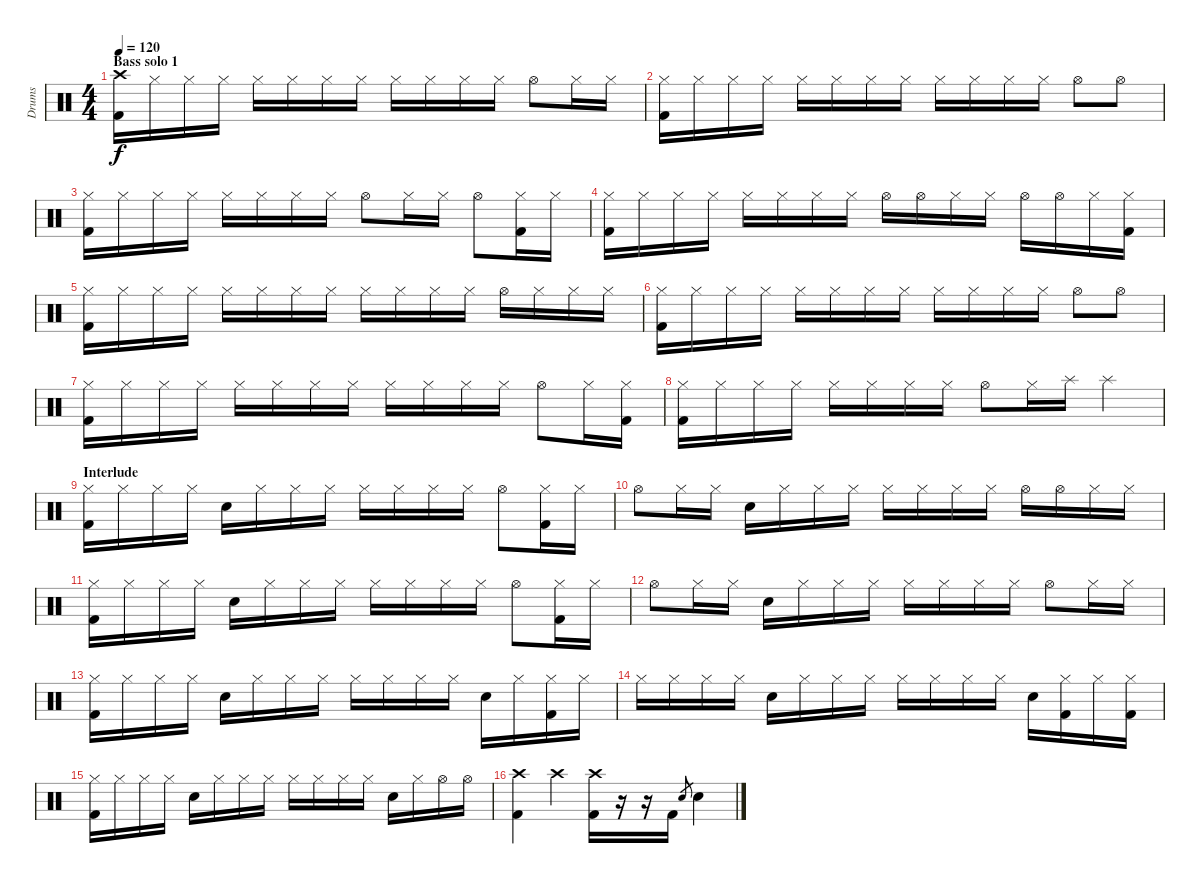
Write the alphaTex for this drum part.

\track ("Drums" "Drums") {instrument percussion}
\staff {score}
\articulation defaults
\ts (4 4)
\section ("" "Bass solo 1")
\tempo 120
\clef neutral
\ks c
("Crash high (hit)" "Kick (hit) 2").16{dy f} "Hi-Hat (closed)".16 "Hi-Hat (closed)".16 "Hi-Hat (closed)".16 "Hi-Hat (closed)".16 "Hi-Hat (closed)".16 "Hi-Hat (closed)".16 "Hi-Hat (closed)".16 "Hi-Hat (closed)".16 "Hi-Hat (closed)".16 "Hi-Hat (closed)".16 "Hi-Hat (closed)".16 "Hi-Hat (open)".8 "Hi-Hat (closed)".16 "Hi-Hat (closed)".16 |
("Hi-Hat (closed)" "Kick (hit) 2").16 "Hi-Hat (closed)".16 "Hi-Hat (closed)".16 "Hi-Hat (closed)".16 "Hi-Hat (closed)".16 "Hi-Hat (closed)".16 "Hi-Hat (closed)".16 "Hi-Hat (closed)".16 "Hi-Hat (closed)".16 "Hi-Hat (closed)".16 "Hi-Hat (closed)".16 "Hi-Hat (closed)".16 "Hi-Hat (open)".8 "Hi-Hat (open)".8 |
("Hi-Hat (closed)" "Kick (hit) 2").16 "Hi-Hat (closed)".16 "Hi-Hat (closed)".16 "Hi-Hat (closed)".16 "Hi-Hat (closed)".16 "Hi-Hat (closed)".16 "Hi-Hat (closed)".16 "Hi-Hat (closed)".16 "Hi-Hat (open)".8 "Hi-Hat (closed)".16 "Hi-Hat (closed)".16 "Hi-Hat (open)".8 ("Hi-Hat (closed)" "Kick (hit) 2").16 "Hi-Hat (closed)".16 |
("Hi-Hat (closed)" "Kick (hit) 2").16 "Hi-Hat (closed)".16 "Hi-Hat (closed)".16 "Hi-Hat (closed)".16 "Hi-Hat (closed)".16 "Hi-Hat (closed)".16 "Hi-Hat (closed)".16 "Hi-Hat (closed)".16 "Hi-Hat (open)".16 "Hi-Hat (open)".16 "Hi-Hat (closed)".16 "Hi-Hat (closed)".16 "Hi-Hat (open)".16 "Hi-Hat (open)".16 "Hi-Hat (closed)".16 ("Hi-Hat (closed)" "Kick (hit) 2").16 |
("Hi-Hat (closed)" "Kick (hit) 2").16 "Hi-Hat (closed)".16 "Hi-Hat (closed)".16 "Hi-Hat (closed)".16 "Hi-Hat (closed)".16 "Hi-Hat (closed)".16 "Hi-Hat (closed)".16 "Hi-Hat (closed)".16 "Hi-Hat (closed)".16 "Hi-Hat (closed)".16 "Hi-Hat (closed)".16 "Hi-Hat (closed)".16 "Hi-Hat (open)".16 "Hi-Hat (closed)".16 "Hi-Hat (closed)".16 "Hi-Hat (closed)".16 |
("Hi-Hat (closed)" "Kick (hit) 2").16 "Hi-Hat (closed)".16 "Hi-Hat (closed)".16 "Hi-Hat (closed)".16 "Hi-Hat (closed)".16 "Hi-Hat (closed)".16 "Hi-Hat (closed)".16 "Hi-Hat (closed)".16 "Hi-Hat (closed)".16 "Hi-Hat (closed)".16 "Hi-Hat (closed)".16 "Hi-Hat (closed)".16 "Hi-Hat (open)".8 "Hi-Hat (open)".8 |
("Hi-Hat (closed)" "Kick (hit) 2").16 "Hi-Hat (closed)".16 "Hi-Hat (closed)".16 "Hi-Hat (closed)".16 "Hi-Hat (closed)".16 "Hi-Hat (closed)".16 "Hi-Hat (closed)".16 "Hi-Hat (closed)".16 "Hi-Hat (closed)".16 "Hi-Hat (closed)".16 "Hi-Hat (closed)".16 "Hi-Hat (closed)".16 "Hi-Hat (open)".8 "Hi-Hat (closed)".16 ("Hi-Hat (closed)" "Kick (hit) 2").16 |
("Hi-Hat (closed)" "Kick (hit) 2").16 "Hi-Hat (closed)".16 "Hi-Hat (closed)".16 "Hi-Hat (closed)".16 "Hi-Hat (closed)".16 "Hi-Hat (closed)".16 "Hi-Hat (closed)".16 "Hi-Hat (closed)".16 "Hi-Hat (open)".8 "Hi-Hat (closed)".16 "Splash (hit)".16 "Splash (hit)".4 |
\section ("" "Interlude")
("Hi-Hat (closed)" "Kick (hit) 2").16 "Hi-Hat (closed)".16 "Hi-Hat (closed)".16 "Hi-Hat (closed)".16 "Electric Snare (hit)".16 "Hi-Hat (closed)".16 "Hi-Hat (closed)".16 "Hi-Hat (closed)".16 "Hi-Hat (closed)".16 "Hi-Hat (closed)".16 "Hi-Hat (closed)".16 "Hi-Hat (closed)".16 "Hi-Hat (open)".8 ("Hi-Hat (closed)" "Kick (hit) 2").16 "Hi-Hat (closed)".16 |
"Hi-Hat (open)".8 "Hi-Hat (closed)".16 "Hi-Hat (closed)".16 "Electric Snare (hit)".16 "Hi-Hat (closed)".16 "Hi-Hat (closed)".16 "Hi-Hat (closed)".16 "Hi-Hat (closed)".16 "Hi-Hat (closed)".16 "Hi-Hat (closed)".16 "Hi-Hat (closed)".16 "Hi-Hat (open)".16 "Hi-Hat (open)".16 "Hi-Hat (closed)".16 "Hi-Hat (closed)".16 |
("Hi-Hat (closed)" "Kick (hit) 2").16 "Hi-Hat (closed)".16 "Hi-Hat (closed)".16 "Hi-Hat (closed)".16 "Electric Snare (hit)".16 "Hi-Hat (closed)".16 "Hi-Hat (closed)".16 "Hi-Hat (closed)".16 "Hi-Hat (closed)".16 "Hi-Hat (closed)".16 "Hi-Hat (closed)".16 "Hi-Hat (closed)".16 "Hi-Hat (open)".8 ("Hi-Hat (closed)" "Kick (hit) 2").16 "Hi-Hat (closed)".16 |
"Hi-Hat (open)".8 "Hi-Hat (closed)".16 "Hi-Hat (closed)".16 "Electric Snare (hit)".16 "Hi-Hat (closed)".16 "Hi-Hat (closed)".16 "Hi-Hat (closed)".16 "Hi-Hat (closed)".16 "Hi-Hat (closed)".16 "Hi-Hat (closed)".16 "Hi-Hat (closed)".16 "Hi-Hat (open)".8 "Hi-Hat (closed)".16 "Hi-Hat (closed)".16 |
("Hi-Hat (closed)" "Kick (hit) 2").16 "Hi-Hat (closed)".16 "Hi-Hat (closed)".16 "Hi-Hat (closed)".16 "Electric Snare (hit)".16 "Hi-Hat (closed)".16 "Hi-Hat (closed)".16 "Hi-Hat (closed)".16 "Hi-Hat (closed)".16 "Hi-Hat (closed)".16 "Hi-Hat (closed)".16 "Hi-Hat (closed)".16 "Electric Snare (hit)".16 "Hi-Hat (closed)".16 ("Hi-Hat (closed)" "Kick (hit) 2").16 "Hi-Hat (closed)".16 |
"Hi-Hat (closed)".16 "Hi-Hat (closed)".16 "Hi-Hat (closed)".16 "Hi-Hat (closed)".16 "Electric Snare (hit)".16 "Hi-Hat (closed)".16 "Hi-Hat (closed)".16 "Hi-Hat (closed)".16 "Hi-Hat (closed)".16 "Hi-Hat (closed)".16 "Hi-Hat (closed)".16 "Hi-Hat (closed)".16 "Electric Snare (hit)".16 ("Hi-Hat (closed)" "Kick (hit) 2").16 "Hi-Hat (closed)".16 ("Hi-Hat (closed)" "Kick (hit) 2").16 |
("Hi-Hat (closed)" "Kick (hit) 2").16 "Hi-Hat (closed)".16 "Hi-Hat (closed)".16 "Hi-Hat (closed)".16 "Electric Snare (hit)".16 "Hi-Hat (closed)".16 "Hi-Hat (closed)".16 "Hi-Hat (closed)".16 "Hi-Hat (closed)".16 "Hi-Hat (closed)".16 "Hi-Hat (closed)".16 "Hi-Hat (closed)".16 "Electric Snare (hit)".16 "Hi-Hat (closed)".16 "Hi-Hat (open)".16 "Hi-Hat (open)".16 |
("Crash high (hit)" "Kick (hit) 2").4 "Crash high (hit)".4 ("Crash high (hit)" "Kick (hit) 2").16 r.16 r.16 "Kick (hit) 2".16 "Electric Snare (hit)".8{gr} "Electric Snare (hit)".4
